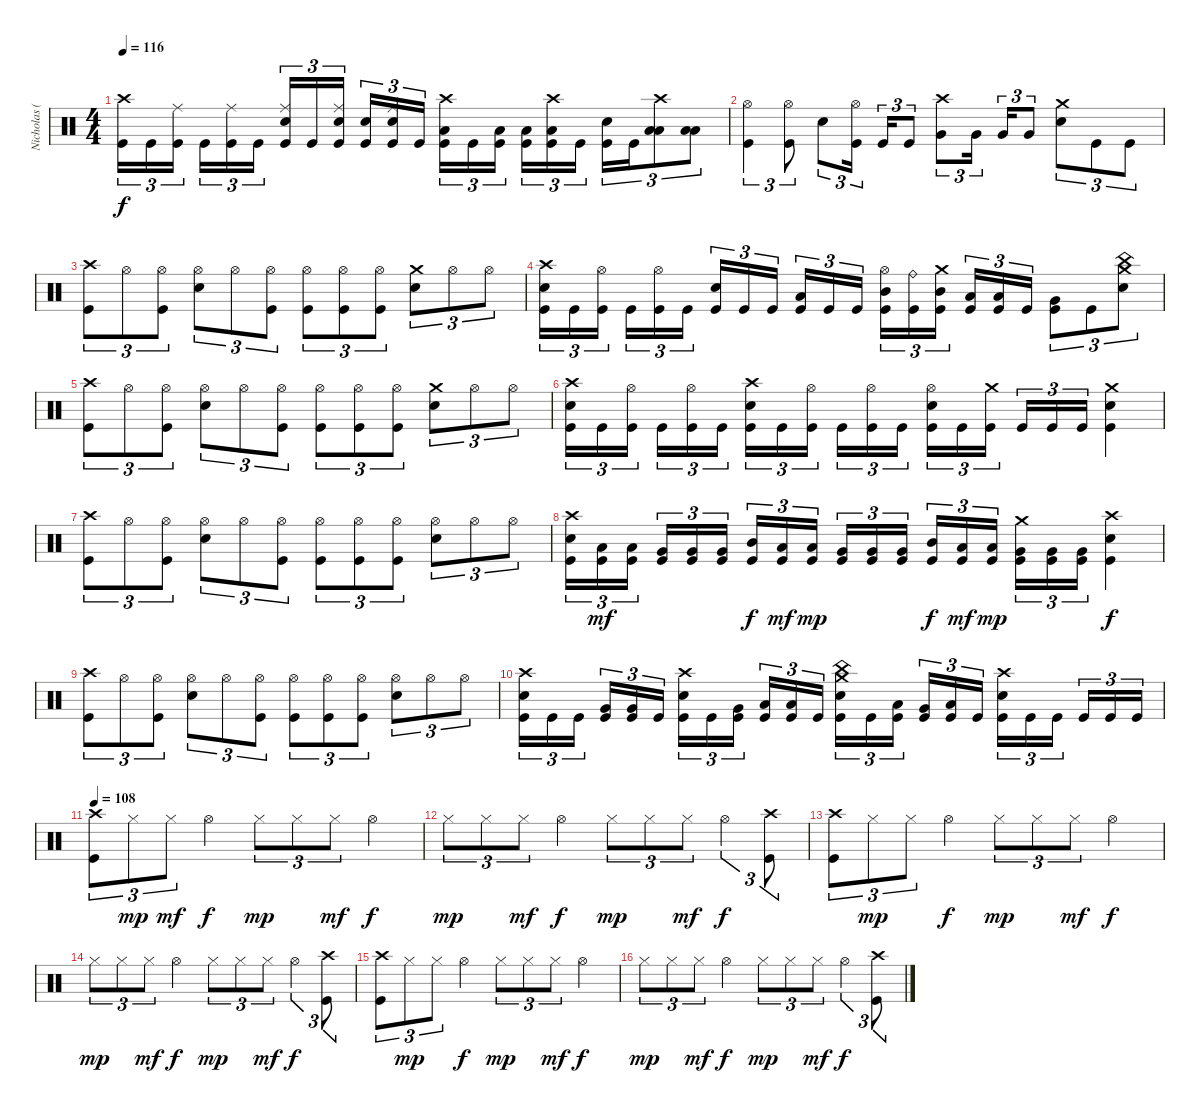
\track ("Nicholas (Drums)" "Nicholas (") {instrument percussion}
\staff {score}
\articulation defaults
\ts (4 4)
\tempo 116
\clef neutral
\ks c
("Crash high (hit)" "Kick (hit)").16{tu (3 2) dy f} "Kick (hit)".16{tu (3 2)} ("Ride (middle)" "Kick (hit)").16{tu (3 2)} "Kick (hit)".16{tu (3 2)} ("Ride (middle)" "Kick (hit)").16{tu (3 2)} "Kick (hit)".16{tu (3 2)} ("Ride (middle)" "Electric Snare (hit)" "Kick (hit)").16{tu (3 2)} "Kick (hit)".16{tu (3 2)} ("Ride (middle)" "Electric Snare (hit)" "Kick (hit)").16{tu (3 2)} ("Electric Snare (hit)" "Kick (hit)").16{tu (3 2)} ("Ride (middle)" "Electric Snare (hit)" "Kick (hit)").16{tu (3 2)} "Kick (hit)".16{tu (3 2)} ("Crash high (hit)" "Low Tom (hit)" "Kick (hit)").16{tu (3 2)} "Kick (hit)".16{tu (3 2)} ("Low Tom (hit)" "Kick (hit)").16{tu (3 2)} ("Low Tom (hit)" "Kick (hit)").16{tu (3 2)} ("Crash high (hit)" "Low Tom (hit)" "Kick (hit)").16{tu (3 2)} "Kick (hit)".16{tu (3 2)} ("Electric Snare (hit)" "Kick (hit)").16{tu (3 2)} "Kick (hit)".16{tu (3 2)} ("Crash high (hit)" "Low Tom (hit)" "Low Floor Tom (hit)").8{tu (3 2)} ("Low Tom (hit)" "Low Floor Tom (hit)").8{tu (3 2)} |
("Hi-Hat (open)" "Kick (hit)").4{tu (3 2)} ("Hi-Hat (open)" "Kick (hit)").8{tu (3 2)} "Electric Snare (hit)".8{tu (3 2)} ("Hi-Hat (open)" "Kick (hit)").16{tu (3 2)} "Kick (hit)".16{tu (3 2)} "Kick (hit)".8{tu (3 2)} ("Crash high (hit)" "Very Low Tom (hit)").8{tu (3 2)} "Very Low Tom (hit)".16{tu (3 2)} "Very Low Tom (hit)".16{tu (3 2)} "Very Low Tom (hit)".8{tu (3 2)} ("Crash medium (hit)" "Electric Snare (hit)").8{tu (3 2)} "Kick (hit)".8{tu (3 2)} "Kick (hit)".8{tu (3 2)} |
("Crash high (hit)" "Kick (hit)").8{tu (3 2)} "Hi-Hat (open)".8{tu (3 2)} ("Hi-Hat (open)" "Kick (hit)").8{tu (3 2)} ("Hi-Hat (open)" "Electric Snare (hit)").8{tu (3 2)} "Hi-Hat (open)".8{tu (3 2)} ("Hi-Hat (open)" "Kick (hit)").8{tu (3 2)} ("Hi-Hat (open)" "Kick (hit)").8{tu (3 2)} ("Hi-Hat (open)" "Kick (hit)").8{tu (3 2)} ("Hi-Hat (open)" "Kick (hit)").8{tu (3 2)} ("Crash medium (hit)" "Electric Snare (hit)").8{tu (3 2)} "Hi-Hat (open)".8{tu (3 2)} "Hi-Hat (open)".8{tu (3 2)} |
("Crash high (hit)" "Electric Snare (hit)" "Kick (hit)").16{tu (3 2)} "Kick (hit)".16{tu (3 2)} ("Hi-Hat (open)" "Kick (hit)").16{tu (3 2)} "Kick (hit)".16{tu (3 2)} ("Hi-Hat (open)" "Kick (hit)").16{tu (3 2)} "Kick (hit)".16{tu (3 2)} ("Electric Snare (hit)" "Kick (hit)").16{tu (3 2)} "Kick (hit)".16{tu (3 2)} "Kick (hit)".16{tu (3 2)} ("Low Tom (hit)" "Kick (hit)").16{tu (3 2)} "Kick (hit)".16{tu (3 2)} "Kick (hit)".16{tu (3 2)} ("Hi-Hat (open)" "Mid Tom (hit)" "Kick (hit)").16{tu (3 2)} ("Ride (bell)" "Kick (hit)").16{tu (3 2)} ("Crash medium (hit)" "Mid Tom (hit)" "Kick (hit)").16{tu (3 2)} ("Low Tom (hit)" "Kick (hit)").16{tu (3 2)} ("Low Tom (hit)" "Kick (hit)").16{tu (3 2)} "Kick (hit)".16{tu (3 2)} ("Very Low Tom (hit)" "Kick (hit)").8{tu (3 2)} "Kick (hit)".8{tu (3 2)} ("Crash medium (hit)" "China (hit)" "Electric Snare (hit)").8{tu (3 2)} |
("Crash high (hit)" "Kick (hit)").8{tu (3 2)} "Hi-Hat (open)".8{tu (3 2)} ("Hi-Hat (open)" "Kick (hit)").8{tu (3 2)} ("Hi-Hat (open)" "Electric Snare (hit)").8{tu (3 2)} "Hi-Hat (open)".8{tu (3 2)} ("Hi-Hat (open)" "Kick (hit)").8{tu (3 2)} ("Hi-Hat (open)" "Kick (hit)").8{tu (3 2)} ("Hi-Hat (open)" "Kick (hit)").8{tu (3 2)} ("Hi-Hat (open)" "Kick (hit)").8{tu (3 2)} ("Crash medium (hit)" "Electric Snare (hit)").8{tu (3 2)} "Hi-Hat (open)".8{tu (3 2)} "Hi-Hat (open)".8{tu (3 2)} |
("Crash high (hit)" "Electric Snare (hit)" "Kick (hit)").16{tu (3 2)} "Kick (hit)".16{tu (3 2)} ("Hi-Hat (open)" "Kick (hit)").16{tu (3 2)} "Kick (hit)".16{tu (3 2)} ("Hi-Hat (open)" "Kick (hit)").16{tu (3 2)} "Kick (hit)".16{tu (3 2)} ("Crash high (hit)" "Electric Snare (hit)" "Kick (hit)").16{tu (3 2)} "Kick (hit)".16{tu (3 2)} ("Hi-Hat (open)" "Kick (hit)").16{tu (3 2)} "Kick (hit)".16{tu (3 2)} ("Hi-Hat (open)" "Kick (hit)").16{tu (3 2)} "Kick (hit)".16{tu (3 2)} ("Hi-Hat (open)" "Electric Snare (hit)" "Kick (hit)").16{tu (3 2)} "Kick (hit)".16{tu (3 2)} ("Crash medium (hit)" "Kick (hit)").16{tu (3 2)} "Kick (hit)".16{tu (3 2)} "Kick (hit)".16{tu (3 2)} "Kick (hit)".16{tu (3 2)} ("Crash medium (hit)" "Electric Snare (hit)" "Kick (hit)").4 |
("Crash high (hit)" "Kick (hit)").8{tu (3 2)} "Hi-Hat (open)".8{tu (3 2)} ("Hi-Hat (open)" "Kick (hit)").8{tu (3 2)} ("Hi-Hat (open)" "Electric Snare (hit)").8{tu (3 2)} "Hi-Hat (open)".8{tu (3 2)} ("Hi-Hat (open)" "Kick (hit)").8{tu (3 2)} ("Hi-Hat (open)" "Kick (hit)").8{tu (3 2)} ("Hi-Hat (open)" "Kick (hit)").8{tu (3 2)} ("Hi-Hat (open)" "Kick (hit)").8{tu (3 2)} ("Hi-Hat (open)" "Electric Snare (hit)").8{tu (3 2)} "Hi-Hat (open)".8{tu (3 2)} "Hi-Hat (open)".8{tu (3 2)} |
("Crash high (hit)" "Electric Snare (hit)" "Kick (hit)").16{tu (3 2)} ("Low Tom (hit)" "Kick (hit)").16{tu (3 2) dy mf} ("Low Tom (hit)" "Kick (hit)").16{tu (3 2)} ("Very Low Tom (hit)" "Kick (hit)").16{tu (3 2)} ("Very Low Tom (hit)" "Kick (hit)").16{tu (3 2)} ("Very Low Tom (hit)" "Kick (hit)").16{tu (3 2)} ("Mid Tom (hit)" "Kick (hit)").16{tu (3 2) dy f} ("Low Tom (hit)" "Kick (hit)").16{tu (3 2) dy mf} ("Low Tom (hit)" "Kick (hit)").16{tu (3 2) dy mp} ("Very Low Tom (hit)" "Kick (hit)").16{tu (3 2)} ("Very Low Tom (hit)" "Kick (hit)").16{tu (3 2)} ("Very Low Tom (hit)" "Kick (hit)").16{tu (3 2)} ("Mid Tom (hit)" "Kick (hit)").16{tu (3 2) dy f} ("Low Tom (hit)" "Kick (hit)").16{tu (3 2) dy mf} ("Low Tom (hit)" "Kick (hit)").16{tu (3 2) dy mp} ("Crash medium (hit)" "Very Low Tom (hit)" "Kick (hit)").16{tu (3 2)} ("Very Low Tom (hit)" "Kick (hit)").16{tu (3 2)} ("Very Low Tom (hit)" "Kick (hit)").16{tu (3 2)} ("Crash high (hit)" "Electric Snare (hit)" "Kick (hit)").4{dy f} |
("Crash high (hit)" "Kick (hit)").8{tu (3 2)} "Hi-Hat (open)".8{tu (3 2)} ("Hi-Hat (open)" "Kick (hit)").8{tu (3 2)} ("Hi-Hat (open)" "Electric Snare (hit)").8{tu (3 2)} "Hi-Hat (open)".8{tu (3 2)} ("Hi-Hat (open)" "Kick (hit)").8{tu (3 2)} ("Hi-Hat (open)" "Kick (hit)").8{tu (3 2)} ("Hi-Hat (open)" "Kick (hit)").8{tu (3 2)} ("Hi-Hat (open)" "Kick (hit)").8{tu (3 2)} ("Hi-Hat (open)" "Electric Snare (hit)").8{tu (3 2)} "Hi-Hat (open)".8{tu (3 2)} "Hi-Hat (open)".8{tu (3 2)} |
("Crash high (hit)" "Electric Snare (hit)" "Kick (hit)").16{tu (3 2)} "Kick (hit)".16{tu (3 2)} "Kick (hit)".16{tu (3 2)} ("Very Low Tom (hit)" "Kick (hit)").16{tu (3 2)} ("Very Low Tom (hit)" "Kick (hit)").16{tu (3 2)} "Kick (hit)".16{tu (3 2)} ("Crash high (hit)" "Electric Snare (hit)" "Kick (hit)").16{tu (3 2)} "Kick (hit)".16{tu (3 2)} ("Very Low Tom (hit)" "Kick (hit)").16{tu (3 2)} ("Low Tom (hit)" "Kick (hit)").16{tu (3 2)} ("Low Tom (hit)" "Kick (hit)").16{tu (3 2)} "Kick (hit)".16{tu (3 2)} ("Crash medium (hit)" "China (hit)" "Electric Snare (hit)" "Kick (hit)").16{tu (3 2)} "Kick (hit)".16{tu (3 2)} ("Low Tom (hit)" "Kick (hit)").16{tu (3 2)} ("Very Low Tom (hit)" "Kick (hit)").16{tu (3 2)} ("Low Tom (hit)" "Kick (hit)").16{tu (3 2)} "Kick (hit)".16{tu (3 2)} ("Crash high (hit)" "Electric Snare (hit)" "Kick (hit)").16{tu (3 2)} "Kick (hit)".16{tu (3 2)} "Kick (hit)".16{tu (3 2)} "Kick (hit)".16{tu (3 2)} "Kick (hit)".16{tu (3 2)} "Kick (hit)".16{tu (3 2)} |
\tempo 108
("Crash high (hit)" "Kick (hit)").8{tu (3 2)} "Hi-Hat (closed)".8{tu (3 2) dy mp} "Hi-Hat (closed)".8{tu (3 2) dy mf} "Hi-Hat (open)".4{dy f} "Hi-Hat (closed)".8{tu (3 2) dy mp} "Hi-Hat (closed)".8{tu (3 2)} "Hi-Hat (closed)".8{tu (3 2) dy mf} "Hi-Hat (open)".4{dy f} |
"Hi-Hat (closed)".8{tu (3 2) dy mp} "Hi-Hat (closed)".8{tu (3 2)} "Hi-Hat (closed)".8{tu (3 2) dy mf} "Hi-Hat (open)".4{dy f} "Hi-Hat (closed)".8{tu (3 2) dy mp} "Hi-Hat (closed)".8{tu (3 2)} "Hi-Hat (closed)".8{tu (3 2) dy mf} "Hi-Hat (open)".4{tu (3 2) dy f} ("Crash high (hit)" "Kick (hit)").8{tu (3 2)} |
("Crash high (hit)" "Kick (hit)").8{tu (3 2)} "Hi-Hat (closed)".8{tu (3 2) dy mp} "Hi-Hat (closed)".8{tu (3 2)} "Hi-Hat (open)".4{dy f} "Hi-Hat (closed)".8{tu (3 2) dy mp} "Hi-Hat (closed)".8{tu (3 2)} "Hi-Hat (closed)".8{tu (3 2) dy mf} "Hi-Hat (open)".4{dy f} |
"Hi-Hat (closed)".8{tu (3 2) dy mp} "Hi-Hat (closed)".8{tu (3 2)} "Hi-Hat (closed)".8{tu (3 2) dy mf} "Hi-Hat (open)".4{dy f} "Hi-Hat (closed)".8{tu (3 2) dy mp} "Hi-Hat (closed)".8{tu (3 2)} "Hi-Hat (closed)".8{tu (3 2) dy mf} "Hi-Hat (open)".4{tu (3 2) dy f} ("Crash high (hit)" "Kick (hit)").8{tu (3 2)} |
("Crash high (hit)" "Kick (hit)").8{tu (3 2)} "Hi-Hat (closed)".8{tu (3 2) dy mp} "Hi-Hat (closed)".8{tu (3 2)} "Hi-Hat (open)".4{dy f} "Hi-Hat (closed)".8{tu (3 2) dy mp} "Hi-Hat (closed)".8{tu (3 2)} "Hi-Hat (closed)".8{tu (3 2) dy mf} "Hi-Hat (open)".4{dy f} |
"Hi-Hat (closed)".8{tu (3 2) dy mp} "Hi-Hat (closed)".8{tu (3 2)} "Hi-Hat (closed)".8{tu (3 2) dy mf} "Hi-Hat (open)".4{dy f} "Hi-Hat (closed)".8{tu (3 2) dy mp} "Hi-Hat (closed)".8{tu (3 2)} "Hi-Hat (closed)".8{tu (3 2) dy mf} "Hi-Hat (open)".4{tu (3 2) dy f} ("Crash high (hit)" "Kick (hit)").8{tu (3 2)}
